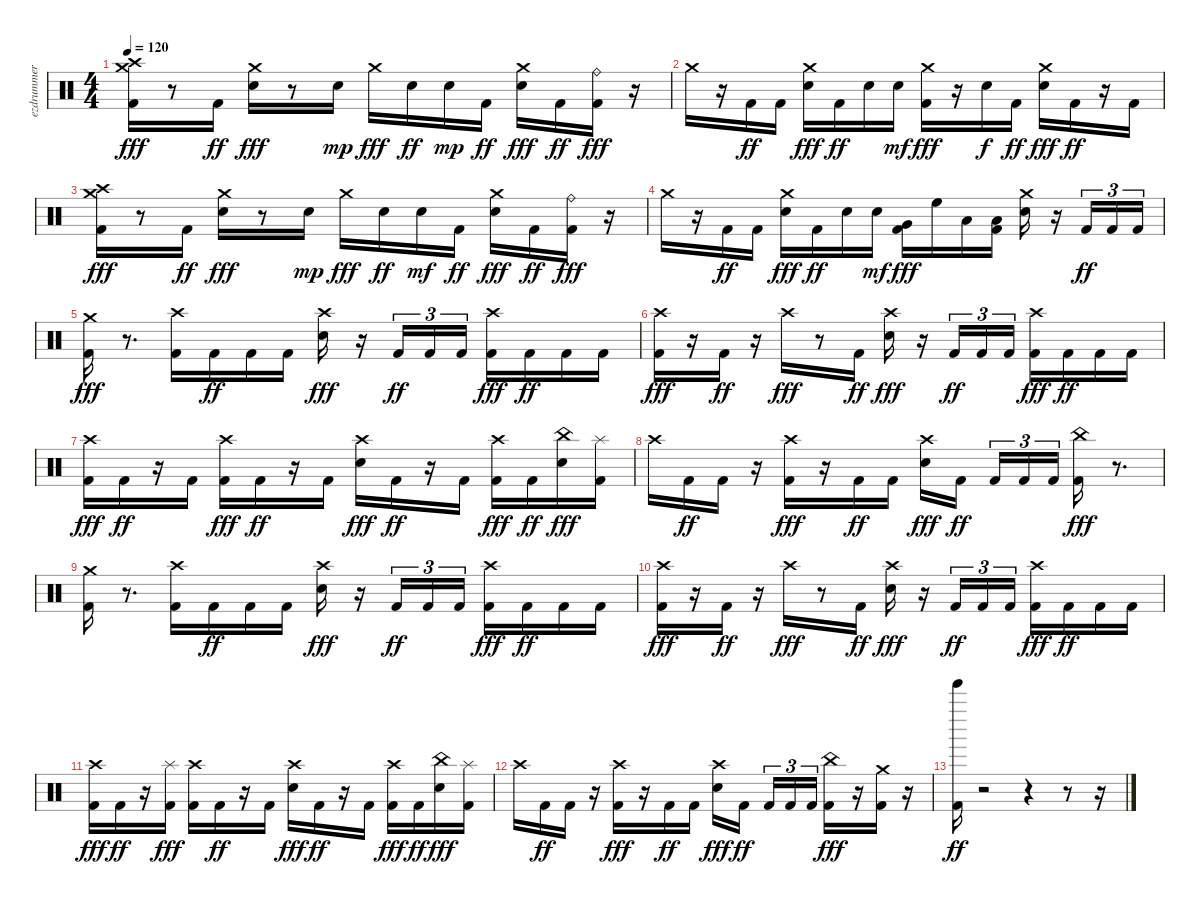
\track ("ezdrummer 02" "ezdrummer ") {instrument percussion}
\staff {score}
\articulation defaults
\ts (4 4)
\tempo 120
\clef neutral
\ks c
("Kick (hit) 2" "Crash high (hit)" "Crash medium (hit)").16{dy fff} r.8 "Kick (hit) 2".16{dy ff} ("Snare (hit) 2" "Crash medium (hit)").16{dy fff} r.8 "Snare (hit) 2".16{dy mp} "Crash medium (hit)".16{dy fff} "Snare (hit) 2".16{dy ff} "Snare (hit) 2".16{dy mp} "Kick (hit) 2".16{dy ff} ("Snare (hit) 2" "Crash medium (hit)").16{dy fff} "Kick (hit) 2".16{dy ff} ("Kick (hit) 2" "Ride (bell)").16{dy fff} r.16 |
"Crash medium (hit)".16 r.16 "Kick (hit) 2".16{dy ff} "Kick (hit) 2".16 ("Snare (hit) 2" "Crash medium (hit)").16{dy fff} "Kick (hit) 2".16{dy ff} "Snare (hit) 2".16 "Snare (hit) 2".16{dy mf} ("Kick (hit) 2" "Crash medium (hit)").16{dy fff} r.16 "Snare (hit) 2".16{dy f} "Kick (hit) 2".16{dy ff} ("Snare (hit) 2" "Crash medium (hit)").16{dy fff} "Kick (hit) 2".16{dy ff} r.16 "Kick (hit) 2".16 |
("Kick (hit) 2" "Crash high (hit)" "Crash medium (hit)").16{dy fff} r.8 "Kick (hit) 2".16{dy ff} ("Snare (hit) 2" "Crash medium (hit)").16{dy fff} r.8 "Snare (hit) 2".16{dy mp} "Crash medium (hit)".16{dy fff} "Snare (hit) 2".16{dy ff} "Snare (hit) 2".16{dy mf} "Kick (hit) 2".16{dy ff} ("Snare (hit) 2" "Crash medium (hit)").16{dy fff} "Kick (hit) 2".16{dy ff} ("Kick (hit) 2" "Ride (bell)").16{dy fff} r.16 |
"Crash medium (hit)".16 r.16 "Kick (hit) 2".16{dy ff} "Kick (hit) 2".16 ("Snare (hit) 2" "Crash medium (hit)").16{dy fff} "Kick (hit) 2".16{dy ff} "Snare (hit) 2".16 "Snare (hit) 2".16{dy mf} ("Kick (hit) 2" "Very Low Tom (hit)").16{dy fff} "High Floor Tom (hit)".16 "Low Floor Tom (hit)".16 ("Kick (hit) 2" "Low Tom (hit)").16 ("Snare (hit) 2" "Crash medium (hit)").16 r.16 "Kick (hit) 2".16{tu (3 2) dy ff} "Kick (hit) 2".16{tu (3 2)} "Kick (hit) 2".16{tu (3 2)} |
("Kick (hit) 2" "Crash medium (hit)").16{dy fff} r.8{d} ("Kick (hit) 2" "Crash high (hit)").16 "Kick (hit) 2".16{dy ff} "Kick (hit) 2".16 "Kick (hit) 2".16 ("Snare (hit) 2" "Crash high (hit)").16{dy fff} r.16 "Kick (hit) 2".16{tu (3 2) dy ff} "Kick (hit) 2".16{tu (3 2)} "Kick (hit) 2".16{tu (3 2)} ("Kick (hit) 2" "Crash high (hit)").16{dy fff} "Kick (hit) 2".16{dy ff} "Kick (hit) 2".16 "Kick (hit) 2".16 |
("Kick (hit) 2" "Crash high (hit)").16{dy fff} r.16 "Kick (hit) 2".16{dy ff} r.16 "Crash high (hit)".16{dy fff} r.8 "Kick (hit) 2".16{dy ff} ("Snare (hit) 2" "Crash high (hit)").16{dy fff} r.16 "Kick (hit) 2".16{tu (3 2) dy ff} "Kick (hit) 2".16{tu (3 2)} "Kick (hit) 2".16{tu (3 2)} ("Kick (hit) 2" "Crash high (hit)").16{dy fff} "Kick (hit) 2".16{dy ff} "Kick (hit) 2".16 "Kick (hit) 2".16 |
("Kick (hit) 2" "Crash high (hit)").16{dy fff} "Kick (hit) 2".16{dy ff} r.16 "Kick (hit) 2".16 ("Kick (hit) 2" "Crash high (hit)").16{dy fff} "Kick (hit) 2".16{dy ff} r.16 "Kick (hit) 2".16 ("Snare (hit) 2" "Crash high (hit)").16{dy fff} "Kick (hit) 2".16{dy ff} r.16 "Kick (hit) 2".16 ("Kick (hit) 2" "Crash high (hit)").16{dy fff} "Kick (hit) 2".16{dy ff} ("Snare (hit) 2" "China (hit)").16{dy fff} ("Kick (hit) 2" "Splash (hit)").16 |
"Crash high (hit)".16 "Kick (hit) 2".16{dy ff} "Kick (hit) 2".16 r.16 ("Kick (hit) 2" "Crash high (hit)").16{dy fff} r.16 "Kick (hit) 2".16{dy ff} "Kick (hit) 2".16 ("Snare (hit) 2" "Crash high (hit)").16{dy fff} "Kick (hit) 2".16{dy ff beam splitsecondary} "Kick (hit) 2".16{tu (3 2)} "Kick (hit) 2".16{tu (3 2)} "Kick (hit) 2".16{tu (3 2)} ("Kick (hit) 2" "China (hit)").16{dy fff} r.8{d} |
("Kick (hit) 2" "Crash medium (hit)").16 r.8{d} ("Kick (hit) 2" "Crash high (hit)").16 "Kick (hit) 2".16{dy ff} "Kick (hit) 2".16 "Kick (hit) 2".16 ("Snare (hit) 2" "Crash high (hit)").16{dy fff} r.16 "Kick (hit) 2".16{tu (3 2) dy ff} "Kick (hit) 2".16{tu (3 2)} "Kick (hit) 2".16{tu (3 2)} ("Kick (hit) 2" "Crash high (hit)").16{dy fff} "Kick (hit) 2".16{dy ff} "Kick (hit) 2".16 "Kick (hit) 2".16 |
("Kick (hit) 2" "Crash high (hit)").16{dy fff} r.16 "Kick (hit) 2".16{dy ff} r.16 "Crash high (hit)".16{dy fff} r.8 "Kick (hit) 2".16{dy ff} ("Snare (hit) 2" "Crash high (hit)").16{dy fff} r.16 "Kick (hit) 2".16{tu (3 2) dy ff} "Kick (hit) 2".16{tu (3 2)} "Kick (hit) 2".16{tu (3 2)} ("Kick (hit) 2" "Crash high (hit)").16{dy fff} "Kick (hit) 2".16{dy ff} "Kick (hit) 2".16 "Kick (hit) 2".16 |
("Kick (hit) 2" "Crash high (hit)").16{dy fff} "Kick (hit) 2".16{dy ff} r.16 ("Kick (hit) 2" "Splash (hit)").16{dy fff} ("Kick (hit) 2" "Crash high (hit)").16 "Kick (hit) 2".16{dy ff} r.16 "Kick (hit) 2".16 ("Snare (hit) 2" "Crash high (hit)").16{dy fff} "Kick (hit) 2".16{dy ff} r.16 "Kick (hit) 2".16 ("Kick (hit) 2" "Crash high (hit)").16{dy fff} "Kick (hit) 2".16{dy ff} ("Snare (hit) 2" "China (hit)").16{dy fff} ("Kick (hit) 2" "Splash (hit)").16 |
"Crash high (hit)".16 "Kick (hit) 2".16{dy ff} "Kick (hit) 2".16 r.16 ("Kick (hit) 2" "Crash high (hit)").16{dy fff} r.16 "Kick (hit) 2".16{dy ff} "Kick (hit) 2".16 ("Snare (hit) 2" "Crash high (hit)").16{dy fff} "Kick (hit) 2".16{dy ff beam splitsecondary} "Kick (hit) 2".16{tu (3 2)} "Kick (hit) 2".16{tu (3 2)} "Kick (hit) 2".16{tu (3 2)} ("Kick (hit) 2" "China (hit)").16{dy fff} r.16 ("Kick (hit) 2" "Crash medium (hit)").16 r.16 |
("Kick (hit) 2" "Tinkle Bell (hit)").16{dy ff} r.2 r.4 r.8 r.16
